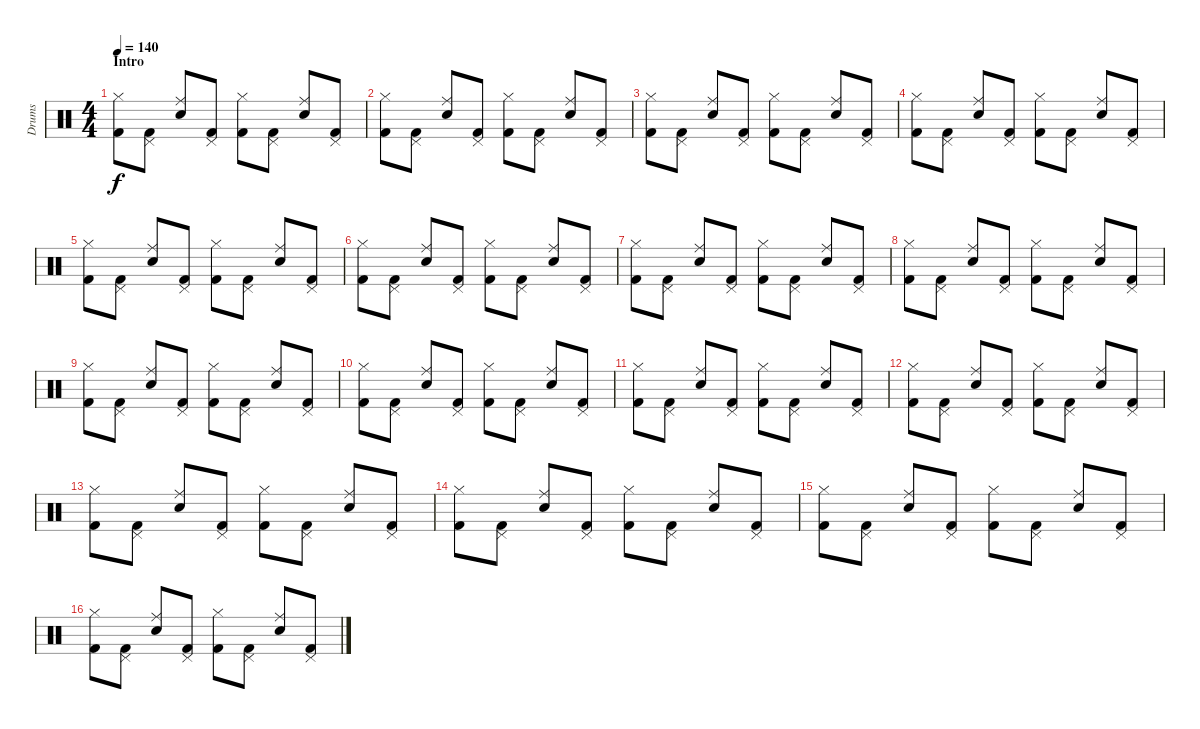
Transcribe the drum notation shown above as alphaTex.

\track ("Drums" "Drums") {instrument percussion}
\staff {score}
\articulation defaults
\ts (4 4)
\section ("" "Intro")
\tempo 140
\clef neutral
\ks c
("Kick (hit) 2" "Hi-Hat (closed)").8{dy f} ("Kick (hit) 2" "Pedal Hi-Hat (hit)").8 ("Electric Snare (hit)" "Ride (middle)").8 ("Kick (hit) 2" "Pedal Hi-Hat (hit)").8 ("Kick (hit) 2" "Hi-Hat (closed)").8 ("Kick (hit) 2" "Pedal Hi-Hat (hit)").8 ("Electric Snare (hit)" "Ride (middle)").8 ("Kick (hit) 2" "Pedal Hi-Hat (hit)").8 |
("Kick (hit) 2" "Hi-Hat (closed)").8 ("Kick (hit) 2" "Pedal Hi-Hat (hit)").8 ("Electric Snare (hit)" "Ride (middle)").8 ("Kick (hit) 2" "Pedal Hi-Hat (hit)").8 ("Kick (hit) 2" "Hi-Hat (closed)").8 ("Kick (hit) 2" "Pedal Hi-Hat (hit)").8 ("Electric Snare (hit)" "Ride (middle)").8 ("Kick (hit) 2" "Pedal Hi-Hat (hit)").8 |
("Kick (hit) 2" "Hi-Hat (closed)").8 ("Kick (hit) 2" "Pedal Hi-Hat (hit)").8 ("Electric Snare (hit)" "Ride (middle)").8 ("Kick (hit) 2" "Pedal Hi-Hat (hit)").8 ("Kick (hit) 2" "Hi-Hat (closed)").8 ("Kick (hit) 2" "Pedal Hi-Hat (hit)").8 ("Electric Snare (hit)" "Ride (middle)").8 ("Kick (hit) 2" "Pedal Hi-Hat (hit)").8 |
("Kick (hit) 2" "Hi-Hat (closed)").8 ("Kick (hit) 2" "Pedal Hi-Hat (hit)").8 ("Electric Snare (hit)" "Ride (middle)").8 ("Kick (hit) 2" "Pedal Hi-Hat (hit)").8 ("Kick (hit) 2" "Hi-Hat (closed)").8 ("Kick (hit) 2" "Pedal Hi-Hat (hit)").8 ("Electric Snare (hit)" "Ride (middle)").8 ("Kick (hit) 2" "Pedal Hi-Hat (hit)").8 |
("Kick (hit) 2" "Hi-Hat (closed)").8 ("Kick (hit) 2" "Pedal Hi-Hat (hit)").8 ("Electric Snare (hit)" "Ride (middle)").8 ("Kick (hit) 2" "Pedal Hi-Hat (hit)").8 ("Kick (hit) 2" "Hi-Hat (closed)").8 ("Kick (hit) 2" "Pedal Hi-Hat (hit)").8 ("Electric Snare (hit)" "Ride (middle)").8 ("Kick (hit) 2" "Pedal Hi-Hat (hit)").8 |
("Kick (hit) 2" "Hi-Hat (closed)").8 ("Kick (hit) 2" "Pedal Hi-Hat (hit)").8 ("Electric Snare (hit)" "Ride (middle)").8 ("Kick (hit) 2" "Pedal Hi-Hat (hit)").8 ("Kick (hit) 2" "Hi-Hat (closed)").8 ("Kick (hit) 2" "Pedal Hi-Hat (hit)").8 ("Electric Snare (hit)" "Ride (middle)").8 ("Kick (hit) 2" "Pedal Hi-Hat (hit)").8 |
("Kick (hit) 2" "Hi-Hat (closed)").8 ("Kick (hit) 2" "Pedal Hi-Hat (hit)").8 ("Electric Snare (hit)" "Ride (middle)").8 ("Kick (hit) 2" "Pedal Hi-Hat (hit)").8 ("Kick (hit) 2" "Hi-Hat (closed)").8 ("Kick (hit) 2" "Pedal Hi-Hat (hit)").8 ("Electric Snare (hit)" "Ride (middle)").8 ("Kick (hit) 2" "Pedal Hi-Hat (hit)").8 |
("Kick (hit) 2" "Hi-Hat (closed)").8 ("Kick (hit) 2" "Pedal Hi-Hat (hit)").8 ("Electric Snare (hit)" "Ride (middle)").8 ("Kick (hit) 2" "Pedal Hi-Hat (hit)").8 ("Kick (hit) 2" "Hi-Hat (closed)").8 ("Kick (hit) 2" "Pedal Hi-Hat (hit)").8 ("Electric Snare (hit)" "Ride (middle)").8 ("Kick (hit) 2" "Pedal Hi-Hat (hit)").8 |
("Kick (hit) 2" "Hi-Hat (closed)").8 ("Kick (hit) 2" "Pedal Hi-Hat (hit)").8 ("Electric Snare (hit)" "Ride (middle)").8 ("Kick (hit) 2" "Pedal Hi-Hat (hit)").8 ("Kick (hit) 2" "Hi-Hat (closed)").8 ("Kick (hit) 2" "Pedal Hi-Hat (hit)").8 ("Electric Snare (hit)" "Ride (middle)").8 ("Kick (hit) 2" "Pedal Hi-Hat (hit)").8 |
("Kick (hit) 2" "Hi-Hat (closed)").8 ("Kick (hit) 2" "Pedal Hi-Hat (hit)").8 ("Electric Snare (hit)" "Ride (middle)").8 ("Kick (hit) 2" "Pedal Hi-Hat (hit)").8 ("Kick (hit) 2" "Hi-Hat (closed)").8 ("Kick (hit) 2" "Pedal Hi-Hat (hit)").8 ("Electric Snare (hit)" "Ride (middle)").8 ("Kick (hit) 2" "Pedal Hi-Hat (hit)").8 |
("Kick (hit) 2" "Hi-Hat (closed)").8 ("Kick (hit) 2" "Pedal Hi-Hat (hit)").8 ("Electric Snare (hit)" "Ride (middle)").8 ("Kick (hit) 2" "Pedal Hi-Hat (hit)").8 ("Kick (hit) 2" "Hi-Hat (closed)").8 ("Kick (hit) 2" "Pedal Hi-Hat (hit)").8 ("Electric Snare (hit)" "Ride (middle)").8 ("Kick (hit) 2" "Pedal Hi-Hat (hit)").8 |
("Kick (hit) 2" "Hi-Hat (closed)").8 ("Kick (hit) 2" "Pedal Hi-Hat (hit)").8 ("Electric Snare (hit)" "Ride (middle)").8 ("Kick (hit) 2" "Pedal Hi-Hat (hit)").8 ("Kick (hit) 2" "Hi-Hat (closed)").8 ("Kick (hit) 2" "Pedal Hi-Hat (hit)").8 ("Electric Snare (hit)" "Ride (middle)").8 ("Kick (hit) 2" "Pedal Hi-Hat (hit)").8 |
("Kick (hit) 2" "Hi-Hat (closed)").8 ("Kick (hit) 2" "Pedal Hi-Hat (hit)").8 ("Electric Snare (hit)" "Ride (middle)").8 ("Kick (hit) 2" "Pedal Hi-Hat (hit)").8 ("Kick (hit) 2" "Hi-Hat (closed)").8 ("Kick (hit) 2" "Pedal Hi-Hat (hit)").8 ("Electric Snare (hit)" "Ride (middle)").8 ("Kick (hit) 2" "Pedal Hi-Hat (hit)").8 |
("Kick (hit) 2" "Hi-Hat (closed)").8 ("Kick (hit) 2" "Pedal Hi-Hat (hit)").8 ("Electric Snare (hit)" "Ride (middle)").8 ("Kick (hit) 2" "Pedal Hi-Hat (hit)").8 ("Kick (hit) 2" "Hi-Hat (closed)").8 ("Kick (hit) 2" "Pedal Hi-Hat (hit)").8 ("Electric Snare (hit)" "Ride (middle)").8 ("Kick (hit) 2" "Pedal Hi-Hat (hit)").8 |
("Kick (hit) 2" "Hi-Hat (closed)").8 ("Kick (hit) 2" "Pedal Hi-Hat (hit)").8 ("Electric Snare (hit)" "Ride (middle)").8 ("Kick (hit) 2" "Pedal Hi-Hat (hit)").8 ("Kick (hit) 2" "Hi-Hat (closed)").8 ("Kick (hit) 2" "Pedal Hi-Hat (hit)").8 ("Electric Snare (hit)" "Ride (middle)").8 ("Kick (hit) 2" "Pedal Hi-Hat (hit)").8 |
("Kick (hit) 2" "Hi-Hat (closed)").8 ("Kick (hit) 2" "Pedal Hi-Hat (hit)").8 ("Electric Snare (hit)" "Ride (middle)").8 ("Kick (hit) 2" "Pedal Hi-Hat (hit)").8 ("Kick (hit) 2" "Hi-Hat (closed)").8 ("Kick (hit) 2" "Pedal Hi-Hat (hit)").8 ("Electric Snare (hit)" "Ride (middle)").8 ("Kick (hit) 2" "Pedal Hi-Hat (hit)").8
